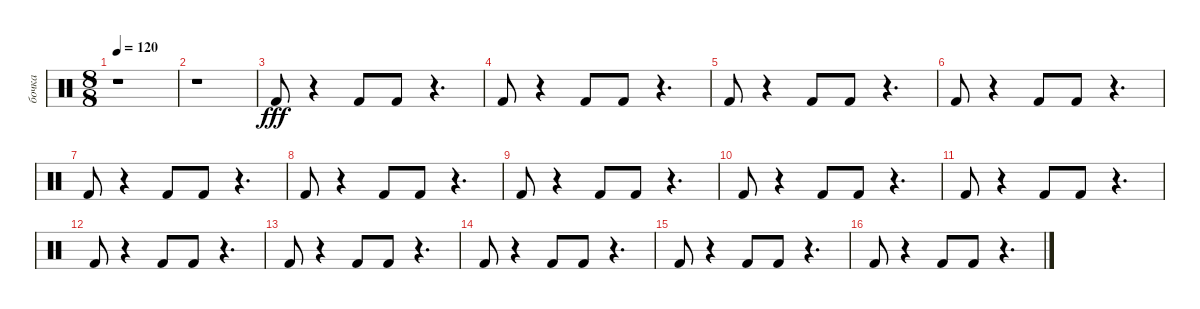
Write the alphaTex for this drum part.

\track ("бочка" "бочка") {instrument percussion}
\staff {score}
\articulation defaults
\ts (8 8)
\tempo 120
\clef neutral
\ks c
r.1{dy fff} |
r.1 |
"Kick (hit) 2".8 r.4 "Kick (hit) 2".8 "Kick (hit) 2".8 r.4{d} |
"Kick (hit) 2".8 r.4 "Kick (hit) 2".8 "Kick (hit) 2".8 r.4{d} |
"Kick (hit) 2".8 r.4 "Kick (hit) 2".8 "Kick (hit) 2".8 r.4{d} |
"Kick (hit) 2".8 r.4 "Kick (hit) 2".8 "Kick (hit) 2".8 r.4{d} |
"Kick (hit) 2".8 r.4 "Kick (hit) 2".8 "Kick (hit) 2".8 r.4{d} |
"Kick (hit) 2".8 r.4 "Kick (hit) 2".8 "Kick (hit) 2".8 r.4{d} |
"Kick (hit) 2".8 r.4 "Kick (hit) 2".8 "Kick (hit) 2".8 r.4{d} |
"Kick (hit) 2".8 r.4 "Kick (hit) 2".8 "Kick (hit) 2".8 r.4{d} |
"Kick (hit) 2".8 r.4 "Kick (hit) 2".8 "Kick (hit) 2".8 r.4{d} |
"Kick (hit) 2".8 r.4 "Kick (hit) 2".8 "Kick (hit) 2".8 r.4{d} |
"Kick (hit) 2".8 r.4 "Kick (hit) 2".8 "Kick (hit) 2".8 r.4{d} |
"Kick (hit) 2".8 r.4 "Kick (hit) 2".8 "Kick (hit) 2".8 r.4{d} |
"Kick (hit) 2".8 r.4 "Kick (hit) 2".8 "Kick (hit) 2".8 r.4{d} |
"Kick (hit) 2".8 r.4 "Kick (hit) 2".8 "Kick (hit) 2".8 r.4{d}
